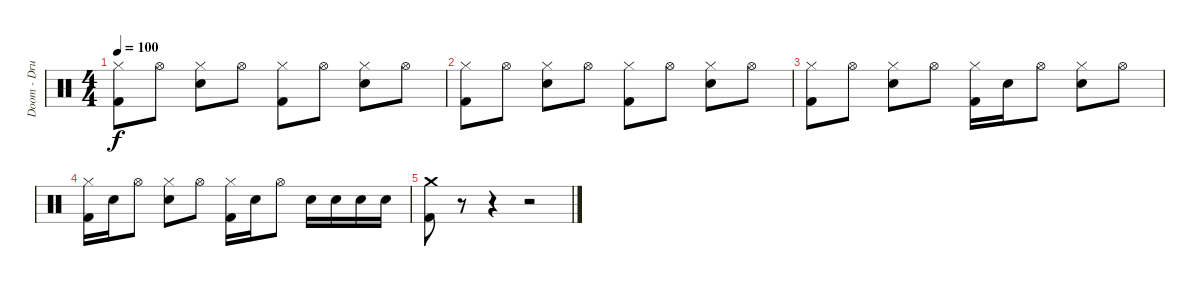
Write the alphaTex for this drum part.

\track ("Doom - Drums" "Doom - Dru") {instrument percussion}
\staff {score}
\articulation defaults
\ts (4 4)
\tempo 100
\clef neutral
\ks c
("Hi-Hat (closed)" "Kick (hit) 2").8{dy f} "Hi-Hat (open)".8 ("Hi-Hat (closed)" "Snare (hit) 2").8 "Hi-Hat (open)".8 ("Hi-Hat (closed)" "Kick (hit) 2").8 "Hi-Hat (open)".8 ("Hi-Hat (closed)" "Snare (hit) 2").8 "Hi-Hat (open)".8 |
("Hi-Hat (closed)" "Kick (hit) 2").8 "Hi-Hat (open)".8 ("Hi-Hat (closed)" "Snare (hit) 2").8 "Hi-Hat (open)".8 ("Hi-Hat (closed)" "Kick (hit) 2").8 "Hi-Hat (open)".8 ("Hi-Hat (closed)" "Snare (hit) 2").8 "Hi-Hat (open)".8 |
("Hi-Hat (closed)" "Kick (hit) 2").8 "Hi-Hat (open)".8 ("Hi-Hat (closed)" "Snare (hit) 2").8 "Hi-Hat (open)".8 ("Hi-Hat (closed)" "Kick (hit) 2").16 "Snare (hit) 2".16 "Hi-Hat (open)".8 ("Hi-Hat (closed)" "Snare (hit) 2").8 "Hi-Hat (open)".8 |
("Hi-Hat (closed)" "Kick (hit) 2").16 "Snare (hit) 2".16 "Hi-Hat (open)".8 ("Hi-Hat (closed)" "Snare (hit) 2").8 "Hi-Hat (open)".8 ("Hi-Hat (closed)" "Kick (hit) 2").16 "Snare (hit) 2".16 "Hi-Hat (open)".8 "Snare (hit) 2".16 "Snare (hit) 2".16 "Snare (hit) 2".16 "Snare (hit) 2".16 |
("Crash medium (hit)" "Kick (hit) 2").8 r.8 r.4 r.2
